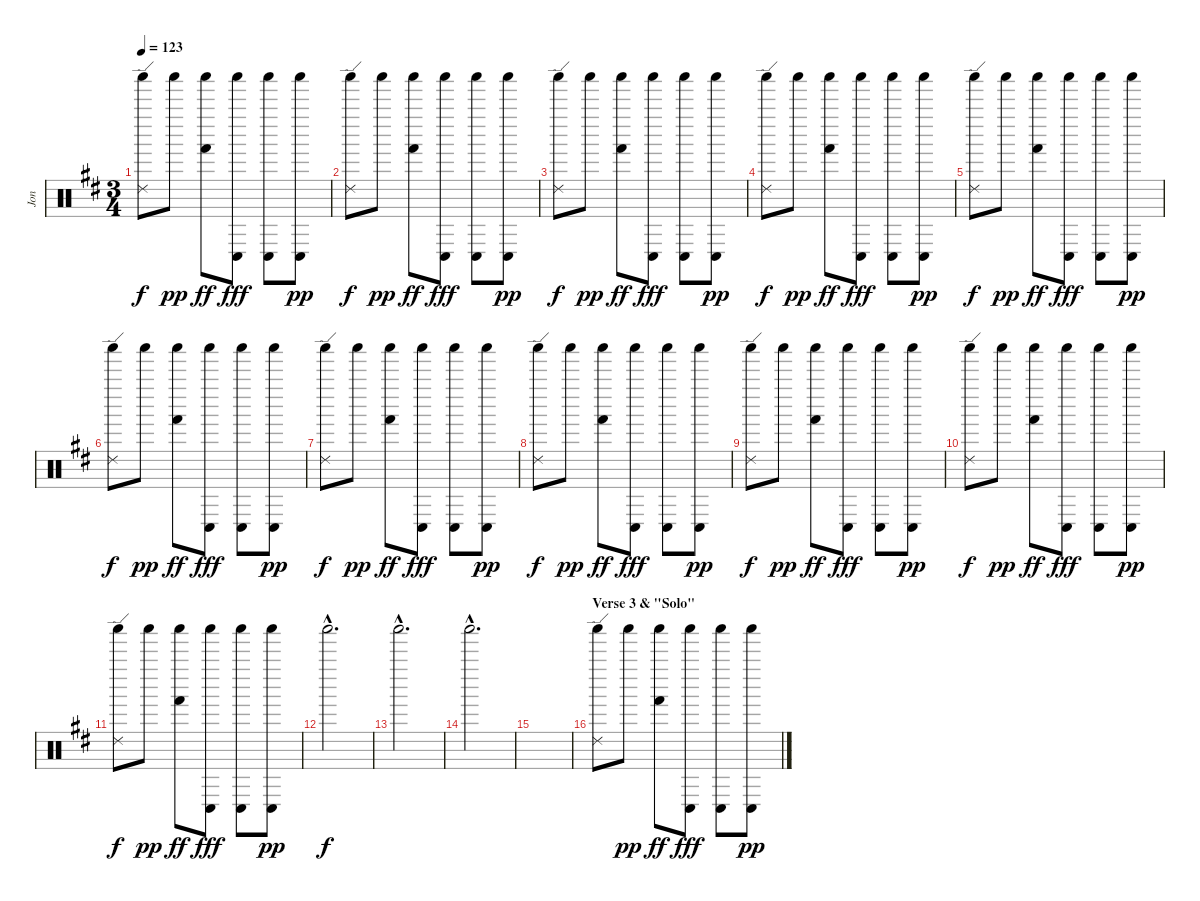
\track ("Jon" "Jon") {instrument percussion}
\staff {score}
\articulation defaults
\ts (3 4)
\tempo 123
\clef neutral
\ks d
("Shaker (hit)" "Ride (edge) 2").8{dy f} "Shaker (hit)".8{dy pp} ("Shaker (hit)" "Hand (hit)").8{dy ff} ("Shaker (hit)" "Conga low (hit)").8{dy fff} ("Shaker (hit)" "Conga low (hit)").8 ("Shaker (hit)" "Conga low (hit)").8{dy pp} |
("Shaker (hit)" "Ride (edge) 2").8{dy f} "Shaker (hit)".8{dy pp} ("Shaker (hit)" "Hand (hit)").8{dy ff} ("Shaker (hit)" "Conga low (hit)").8{dy fff} ("Shaker (hit)" "Conga low (hit)").8 ("Shaker (hit)" "Conga low (hit)").8{dy pp} |
("Shaker (hit)" "Ride (edge) 2").8{dy f} "Shaker (hit)".8{dy pp} ("Shaker (hit)" "Hand (hit)").8{dy ff} ("Shaker (hit)" "Conga low (hit)").8{dy fff} ("Shaker (hit)" "Conga low (hit)").8 ("Shaker (hit)" "Conga low (hit)").8{dy pp} |
\section ("" "")
("Shaker (hit)" "Ride (edge) 2").8{dy f} "Shaker (hit)".8{dy pp} ("Shaker (hit)" "Hand (hit)").8{dy ff} ("Shaker (hit)" "Conga low (hit)").8{dy fff} ("Shaker (hit)" "Conga low (hit)").8 ("Shaker (hit)" "Conga low (hit)").8{dy pp} |
("Shaker (hit)" "Ride (edge) 2").8{dy f} "Shaker (hit)".8{dy pp} ("Shaker (hit)" "Hand (hit)").8{dy ff} ("Shaker (hit)" "Conga low (hit)").8{dy fff} ("Shaker (hit)" "Conga low (hit)").8 ("Shaker (hit)" "Conga low (hit)").8{dy pp} |
("Shaker (hit)" "Ride (edge) 2").8{dy f} "Shaker (hit)".8{dy pp} ("Shaker (hit)" "Hand (hit)").8{dy ff} ("Shaker (hit)" "Conga low (hit)").8{dy fff} ("Shaker (hit)" "Conga low (hit)").8 ("Shaker (hit)" "Conga low (hit)").8{dy pp} |
("Shaker (hit)" "Ride (edge) 2").8{dy f} "Shaker (hit)".8{dy pp} ("Shaker (hit)" "Hand (hit)").8{dy ff} ("Shaker (hit)" "Conga low (hit)").8{dy fff} ("Shaker (hit)" "Conga low (hit)").8 ("Shaker (hit)" "Conga low (hit)").8{dy pp} |
\section ("" "")
("Shaker (hit)" "Ride (edge) 2").8{dy f} "Shaker (hit)".8{dy pp} ("Shaker (hit)" "Hand (hit)").8{dy ff} ("Shaker (hit)" "Conga low (hit)").8{dy fff} ("Shaker (hit)" "Conga low (hit)").8 ("Shaker (hit)" "Conga low (hit)").8{dy pp} |
("Shaker (hit)" "Ride (edge) 2").8{dy f} "Shaker (hit)".8{dy pp} ("Shaker (hit)" "Hand (hit)").8{dy ff} ("Shaker (hit)" "Conga low (hit)").8{dy fff} ("Shaker (hit)" "Conga low (hit)").8 ("Shaker (hit)" "Conga low (hit)").8{dy pp} |
("Shaker (hit)" "Ride (edge) 2").8{dy f} "Shaker (hit)".8{dy pp} ("Shaker (hit)" "Hand (hit)").8{dy ff} ("Shaker (hit)" "Conga low (hit)").8{dy fff} ("Shaker (hit)" "Conga low (hit)").8 ("Shaker (hit)" "Conga low (hit)").8{dy pp} |
("Shaker (hit)" "Ride (edge) 2").8{dy f} "Shaker (hit)".8{dy pp} ("Shaker (hit)" "Hand (hit)").8{dy ff} ("Shaker (hit)" "Conga low (hit)").8{dy fff} ("Shaker (hit)" "Conga low (hit)").8 ("Shaker (hit)" "Conga low (hit)").8{dy pp} |
\section ("" "")
"Shaker (hit)"{hac}.2{d dy f} |
"Shaker (hit)"{hac}.2{d} |
"Shaker (hit)"{hac}.2{d} |
|
\section ("" "Verse 3 & \"Solo\"")
("Shaker (hit)" "Ride (edge) 2").8 "Shaker (hit)".8{dy pp} ("Shaker (hit)" "Hand (hit)").8{dy ff} ("Shaker (hit)" "Conga low (hit)").8{dy fff} ("Shaker (hit)" "Conga low (hit)").8 ("Shaker (hit)" "Conga low (hit)").8{dy pp}
